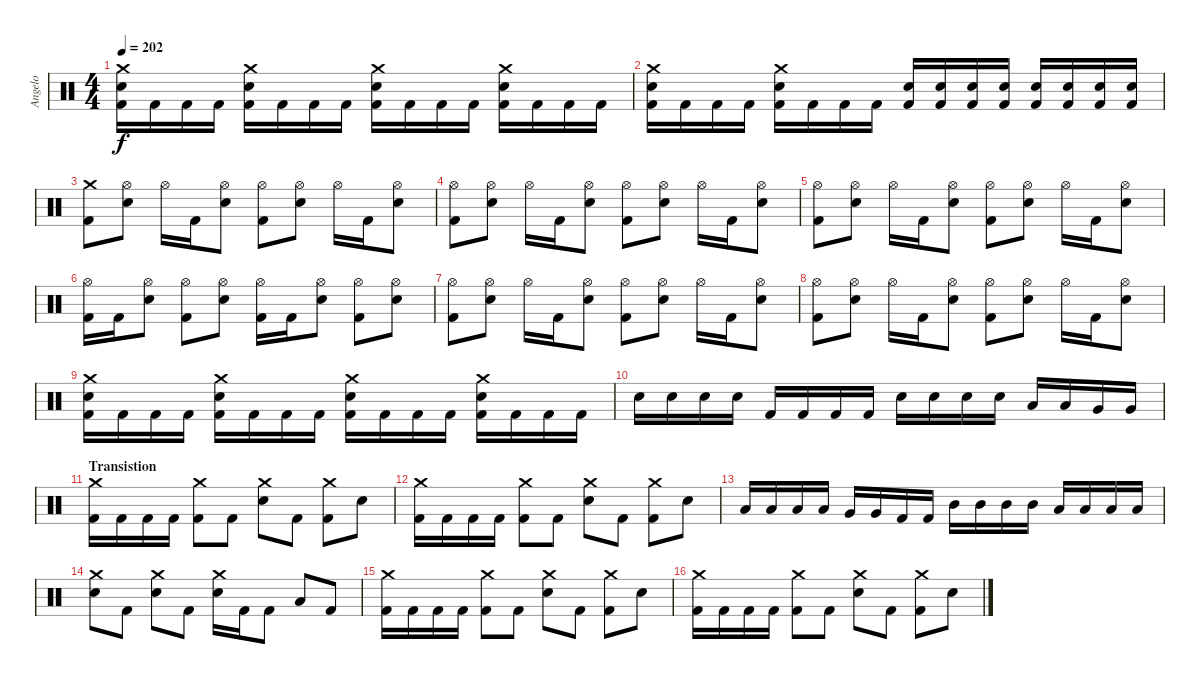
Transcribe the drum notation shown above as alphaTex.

\track ("Angelo" "Angelo") {instrument percussion}
\staff {score}
\articulation defaults
\ts (4 4)
\tempo 202
\clef neutral
\ks c
("Crash medium (hit)" "Electric Snare (hit)" "Kick (hit) 2").16{dy f} "Kick (hit) 2".16 "Kick (hit) 2".16 "Kick (hit) 2".16 ("Crash medium (hit)" "Electric Snare (hit)" "Kick (hit) 2").16 "Kick (hit) 2".16 "Kick (hit) 2".16 "Kick (hit) 2".16 ("Crash medium (hit)" "Electric Snare (hit)" "Kick (hit) 2").16 "Kick (hit) 2".16 "Kick (hit) 2".16 "Kick (hit) 2".16 ("Crash medium (hit)" "Electric Snare (hit)" "Kick (hit) 2").16 "Kick (hit) 2".16 "Kick (hit) 2".16 "Kick (hit) 2".16 |
("Crash medium (hit)" "Electric Snare (hit)" "Kick (hit) 2").16 "Kick (hit) 2".16 "Kick (hit) 2".16 "Kick (hit) 2".16 ("Crash medium (hit)" "Electric Snare (hit)" "Kick (hit) 2").16 "Kick (hit) 2".16 "Kick (hit) 2".16 "Kick (hit) 2".16 ("Electric Snare (hit)" "Kick (hit) 2").16 ("Electric Snare (hit)" "Kick (hit) 2").16 ("Electric Snare (hit)" "Kick (hit) 2").16 ("Electric Snare (hit)" "Kick (hit) 2").16 ("Electric Snare (hit)" "Kick (hit) 2").16 ("Electric Snare (hit)" "Kick (hit) 2").16 ("Electric Snare (hit)" "Kick (hit) 2").16 ("Electric Snare (hit)" "Kick (hit) 2").16 |
("Crash medium (hit)" "Kick (hit) 2").8 ("Hi-Hat (open)" "Electric Snare (hit)").8 "Hi-Hat (open)".16 "Kick (hit) 2".16 ("Hi-Hat (open)" "Electric Snare (hit)").8 ("Hi-Hat (open)" "Kick (hit) 2").8 ("Hi-Hat (open)" "Electric Snare (hit)").8 "Hi-Hat (open)".16 "Kick (hit) 2".16 ("Hi-Hat (open)" "Electric Snare (hit)").8 |
("Hi-Hat (open)" "Kick (hit) 2").8 ("Hi-Hat (open)" "Electric Snare (hit)").8 "Hi-Hat (open)".16 "Kick (hit) 2".16 ("Hi-Hat (open)" "Electric Snare (hit)").8 ("Hi-Hat (open)" "Kick (hit) 2").8 ("Hi-Hat (open)" "Electric Snare (hit)").8 "Hi-Hat (open)".16 "Kick (hit) 2".16 ("Hi-Hat (open)" "Electric Snare (hit)").8 |
("Hi-Hat (open)" "Kick (hit) 2").8 ("Hi-Hat (open)" "Electric Snare (hit)").8 "Hi-Hat (open)".16 "Kick (hit) 2".16 ("Hi-Hat (open)" "Electric Snare (hit)").8 ("Hi-Hat (open)" "Kick (hit) 2").8 ("Hi-Hat (open)" "Electric Snare (hit)").8 "Hi-Hat (open)".16 "Kick (hit) 2".16 ("Hi-Hat (open)" "Electric Snare (hit)").8 |
("Hi-Hat (open)" "Kick (hit) 2").16 "Kick (hit) 2".16 ("Hi-Hat (open)" "Electric Snare (hit)").8 ("Hi-Hat (open)" "Kick (hit) 2").8 ("Hi-Hat (open)" "Electric Snare (hit)").8 ("Hi-Hat (open)" "Kick (hit) 2").16 "Kick (hit) 2".16 ("Hi-Hat (open)" "Electric Snare (hit)").8 ("Hi-Hat (open)" "Kick (hit) 2").8 ("Hi-Hat (open)" "Electric Snare (hit)").8 |
("Hi-Hat (open)" "Kick (hit) 2").8 ("Hi-Hat (open)" "Electric Snare (hit)").8 "Hi-Hat (open)".16 "Kick (hit) 2".16 ("Hi-Hat (open)" "Electric Snare (hit)").8 ("Hi-Hat (open)" "Kick (hit) 2").8 ("Hi-Hat (open)" "Electric Snare (hit)").8 "Hi-Hat (open)".16 "Kick (hit) 2".16 ("Hi-Hat (open)" "Electric Snare (hit)").8 |
("Hi-Hat (open)" "Kick (hit) 2").8 ("Hi-Hat (open)" "Electric Snare (hit)").8 "Hi-Hat (open)".16 "Kick (hit) 2".16 ("Hi-Hat (open)" "Electric Snare (hit)").8 ("Hi-Hat (open)" "Kick (hit) 2").8 ("Hi-Hat (open)" "Electric Snare (hit)").8 "Hi-Hat (open)".16 "Kick (hit) 2".16 ("Hi-Hat (open)" "Electric Snare (hit)").8 |
("Crash medium (hit)" "Electric Snare (hit)" "Kick (hit) 2").16 "Kick (hit) 2".16 "Kick (hit) 2".16 "Kick (hit) 2".16 ("Crash medium (hit)" "Electric Snare (hit)" "Kick (hit) 2").16 "Kick (hit) 2".16 "Kick (hit) 2".16 "Kick (hit) 2".16 ("Crash medium (hit)" "Electric Snare (hit)" "Kick (hit) 2").16 "Kick (hit) 2".16 "Kick (hit) 2".16 "Kick (hit) 2".16 ("Crash medium (hit)" "Electric Snare (hit)" "Kick (hit) 2").16 "Kick (hit) 2".16 "Kick (hit) 2".16 "Kick (hit) 2".16 |
"Electric Snare (hit)".16 "Electric Snare (hit)".16 "Electric Snare (hit)".16 "Electric Snare (hit)".16 "Kick (hit) 2".16 "Kick (hit) 2".16 "Kick (hit) 2".16 "Kick (hit) 2".16 "Electric Snare (hit)".16 "Electric Snare (hit)".16 "Electric Snare (hit)".16 "Electric Snare (hit)".16 "Low Tom (hit)".16 "Low Tom (hit)".16 "Very Low Tom (hit)".16 "Very Low Tom (hit)".16 |
\section ("" "Transistion")
("Crash medium (hit)" "Kick (hit) 2").16 "Kick (hit) 2".16 "Kick (hit) 2".16 "Kick (hit) 2".16 ("Crash medium (hit)" "Kick (hit) 2").8 "Kick (hit) 2".8 ("Crash medium (hit)" "Electric Snare (hit)").8 "Kick (hit) 2".8 ("Crash medium (hit)" "Kick (hit) 2").8 "Electric Snare (hit)".8 |
("Crash medium (hit)" "Kick (hit) 2").16 "Kick (hit) 2".16 "Kick (hit) 2".16 "Kick (hit) 2".16 ("Crash medium (hit)" "Kick (hit) 2").8 "Kick (hit) 2".8 ("Crash medium (hit)" "Electric Snare (hit)").8 "Kick (hit) 2".8 ("Crash medium (hit)" "Kick (hit) 2").8 "Electric Snare (hit)".8 |
"Low Tom (hit)".16 "Low Tom (hit)".16 "Low Tom (hit)".16 "Low Tom (hit)".16 "Very Low Tom (hit)".16 "Very Low Tom (hit)".16 "Kick (hit) 2".16 "Kick (hit) 2".16 "Mid Tom (hit)".16 "Mid Tom (hit)".16 "Mid Tom (hit)".16 "Mid Tom (hit)".16 "Low Tom (hit)".16 "Low Tom (hit)".16 "Low Tom (hit)".16 "Low Tom (hit)".16 |
("Crash medium (hit)" "Electric Snare (hit)").8 "Kick (hit) 2".8 ("Crash medium (hit)" "Electric Snare (hit)").8 "Kick (hit) 2".8 ("Crash medium (hit)" "Electric Snare (hit)").16 "Kick (hit) 2".16 "Kick (hit) 2".8 "Low Tom (hit)".8 "Kick (hit) 2".8 |
("Crash medium (hit)" "Kick (hit) 2").16 "Kick (hit) 2".16 "Kick (hit) 2".16 "Kick (hit) 2".16 ("Crash medium (hit)" "Kick (hit) 2").8 "Kick (hit) 2".8 ("Crash medium (hit)" "Electric Snare (hit)").8 "Kick (hit) 2".8 ("Crash medium (hit)" "Kick (hit) 2").8 "Electric Snare (hit)".8 |
("Crash medium (hit)" "Kick (hit) 2").16 "Kick (hit) 2".16 "Kick (hit) 2".16 "Kick (hit) 2".16 ("Crash medium (hit)" "Kick (hit) 2").8 "Kick (hit) 2".8 ("Crash medium (hit)" "Electric Snare (hit)").8 "Kick (hit) 2".8 ("Crash medium (hit)" "Kick (hit) 2").8 "Electric Snare (hit)".8
